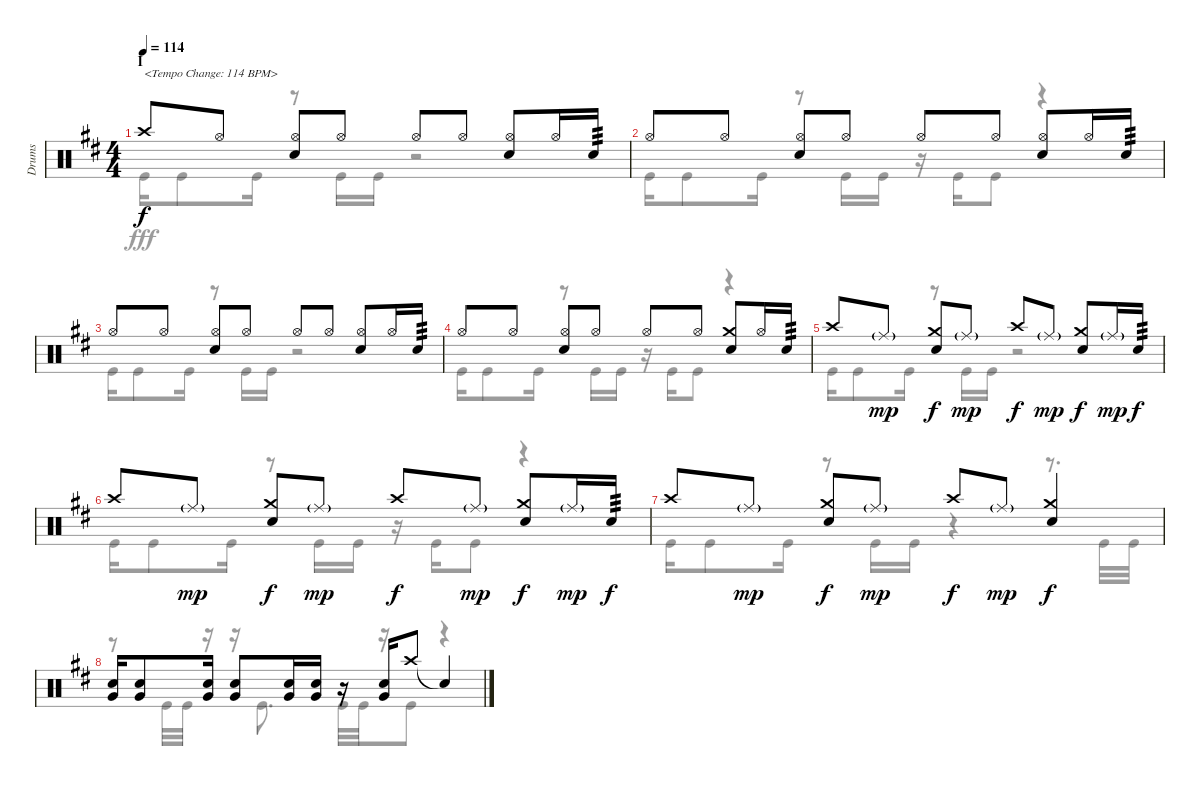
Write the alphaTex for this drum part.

\track ("Drums" "Drums") {instrument percussion}
\staff {score}
\articulation defaults
\voice
\ts (4 4)
\section ("" "I")
\tempo 114
\clef neutral
\ks d "Crash high (hit)".8{txt "<Tempo Change: 114 BPM>" dy f} "Hi-Hat (open)".8
("Hi-Hat (open)" "Snare (hit) 2").8 "Hi-Hat (open)".8 "Hi-Hat (open)".8 "Hi-Hat (open)".8 ("Hi-Hat (open)" "Snare (hit) 2").8 "Hi-Hat (open)".16 "Snare (hit) 2".16{tp 3} |
"Hi-Hat (open)".8 "Hi-Hat (open)".8 ("Hi-Hat (open)" "Snare (hit) 2").8 "Hi-Hat (open)".8 "Hi-Hat (open)".8 "Hi-Hat (open)".8 ("Hi-Hat (open)" "Snare (hit) 2").8 "Hi-Hat (open)".16 "Snare (hit) 2".16{tp 3} |
"Hi-Hat (open)".8 "Hi-Hat (open)".8 ("Hi-Hat (open)" "Snare (hit) 2").8 "Hi-Hat (open)".8 "Hi-Hat (open)".8 "Hi-Hat (open)".8 ("Hi-Hat (open)" "Snare (hit) 2").8 "Hi-Hat (open)".16 "Snare (hit) 2".16{tp 3} |
"Hi-Hat (open)".8 "Hi-Hat (open)".8 ("Hi-Hat (open)" "Snare (hit) 2").8 "Hi-Hat (open)".8 "Hi-Hat (open)".8 "Hi-Hat (open)".8 ("Crash medium (hit)" "Snare (hit) 2").8 "Hi-Hat (open)".16 "Snare (hit) 2".16{tp 3} |
"Crash high (hit)".8 "Ride (middle)"{g}.8{dy mp} ("Crash medium (hit)" "Snare (hit) 2").8{dy f} "Ride (middle)"{g}.8{dy mp} "Crash high (hit)".8{dy f} "Ride (middle)"{g}.8{dy mp} ("Crash medium (hit)" "Snare (hit) 2").8{dy f} "Ride (middle)"{g}.16{dy mp} "Snare (hit) 2".16{tp 3 dy f} |
"Crash high (hit)".8 "Ride (middle)"{g}.8{dy mp} ("Crash medium (hit)" "Snare (hit) 2").8{dy f} "Ride (middle)"{g}.8{dy mp} "Crash high (hit)".8{dy f} "Ride (middle)"{g}.8{dy mp} ("Crash medium (hit)" "Snare (hit) 2").8{dy f} "Ride (middle)"{g}.16{dy mp} "Snare (hit) 2".16{tp 3 dy f} |
"Crash high (hit)".8 "Ride (middle)"{g}.8{dy mp} ("Crash medium (hit)" "Snare (hit) 2").8{dy f} "Ride (middle)"{g}.8{dy mp} "Crash high (hit)".8{dy f} "Ride (middle)"{g}.8{dy mp} ("Crash medium (hit)" "Snare (hit) 2").4{dy f} |
("Snare (hit) 2" "Very Low Tom (hit)").16 ("Snare (hit) 2" "Very Low Tom (hit)").8 ("Snare (hit) 2" "Very Low Tom (hit)").16 ("Snare (hit) 2" "Very Low Tom (hit)").8 ("Snare (hit) 2" "Very Low Tom (hit)").16 ("Snare (hit) 2" "Very Low Tom (hit)").16 r.16 ("Snare (hit) 2" "Very Low Tom (hit)").16 "Crash high (hit)".8 "Snare (hit)"{t}.4
\voice
\clef neutral
\ottava regular
\simile none
\ks d "Kick (hit)".16{dy fff} "Kick (hit)".8 "Kick (hit)".16
r.8 "Kick (hit)".16 "Kick (hit)".16 r.2 |
"Kick (hit)".16 "Kick (hit)".8 "Kick (hit)".16 r.8 "Kick (hit)".16 "Kick (hit)".16 r.16 "Kick (hit)".16 "Kick (hit)".8 r.4 |
"Kick (hit)".16 "Kick (hit)".8 "Kick (hit)".16 r.8 "Kick (hit)".16 "Kick (hit)".16 r.2 |
"Kick (hit)".16 "Kick (hit)".8 "Kick (hit)".16 r.8 "Kick (hit)".16 "Kick (hit)".16 r.16 "Kick (hit)".16 "Kick (hit)".8 r.4 |
"Kick (hit)".16 "Kick (hit)".8 "Kick (hit)".16 r.8 "Kick (hit)".16 "Kick (hit)".16 r.2 |
"Kick (hit)".16 "Kick (hit)".8 "Kick (hit)".16 r.8 "Kick (hit)".16 "Kick (hit)".16 r.16 "Kick (hit)".16 "Kick (hit)".8 r.4 |
"Kick (hit)".16 "Kick (hit)".8 "Kick (hit)".16 r.8 "Kick (hit)".16 "Kick (hit)".16 r.4 r.8{d} "Kick (hit)".32 "Kick (hit)".32 |
r.8 "Kick (hit)".32 "Kick (hit)".32 r.16 r.16 "Kick (hit)".8{d} "Kick (hit)".32 "Kick (hit)".32 r.16 "Kick (hit)".8 r.4
